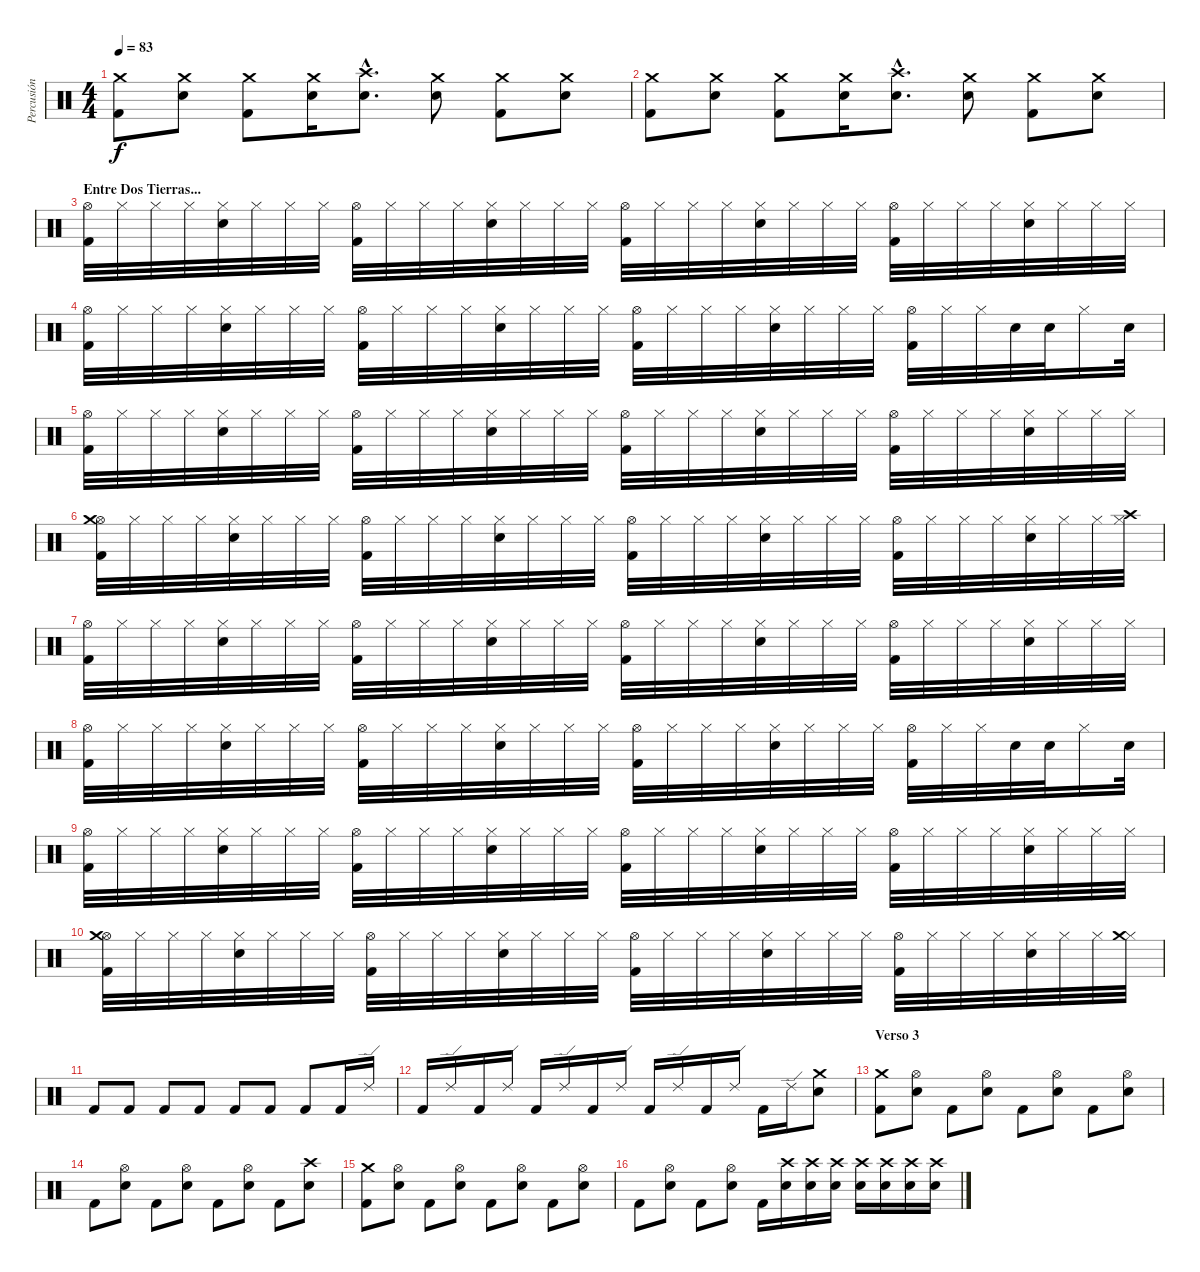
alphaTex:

\track ("Percusión" "Percusión") {instrument percussion}
\staff {score}
\articulation defaults
\ts (4 4)
\tempo 83
\clef neutral
\ks c
("Kick (hit) 2" "Crash medium (hit)").8{dy f} ("Snare (hit) 2" "Crash medium (hit)").8 ("Kick (hit) 2" "Crash medium (hit)").8 ("Snare (hit) 2" "Crash medium (hit)").16 ("Snare (hit) 2"{hac} "Crash high (hit)"{hac}).8{d} ("Snare (hit) 2" "Crash medium (hit)").8 ("Kick (hit) 2" "Crash medium (hit)").8 ("Snare (hit) 2" "Crash medium (hit)").8 |
("Kick (hit) 2" "Crash medium (hit)").8 ("Snare (hit) 2" "Crash medium (hit)").8 ("Kick (hit) 2" "Crash medium (hit)").8 ("Snare (hit) 2" "Crash medium (hit)").16 ("Snare (hit) 2"{hac} "Crash high (hit)"{hac}).8{d} ("Snare (hit) 2" "Crash medium (hit)").8 ("Kick (hit) 2" "Crash medium (hit)").8 ("Snare (hit) 2" "Crash medium (hit)").8 |
\section ("" "Entre Dos Tierras...")
("Hi-Hat (open)" "Kick (hit) 2").32 "Hi-Hat (closed)".32 "Hi-Hat (closed)".32 "Hi-Hat (closed)".32 ("Hi-Hat (closed)" "Snare (hit) 2").32 "Hi-Hat (closed)".32 "Hi-Hat (closed)".32 "Hi-Hat (closed)".32 ("Hi-Hat (open)" "Kick (hit) 2").32 "Hi-Hat (closed)".32 "Hi-Hat (closed)".32 "Hi-Hat (closed)".32 ("Hi-Hat (closed)" "Snare (hit) 2").32 "Hi-Hat (closed)".32 "Hi-Hat (closed)".32 "Hi-Hat (closed)".32 ("Hi-Hat (open)" "Kick (hit) 2").32 "Hi-Hat (closed)".32 "Hi-Hat (closed)".32 "Hi-Hat (closed)".32 ("Hi-Hat (closed)" "Snare (hit) 2").32 "Hi-Hat (closed)".32 "Hi-Hat (closed)".32 "Hi-Hat (closed)".32 ("Hi-Hat (open)" "Kick (hit) 2").32 "Hi-Hat (closed)".32 "Hi-Hat (closed)".32 "Hi-Hat (closed)".32 ("Hi-Hat (closed)" "Snare (hit) 2").32 "Hi-Hat (closed)".32 "Hi-Hat (closed)".32 "Hi-Hat (closed)".32 |
("Hi-Hat (open)" "Kick (hit) 2").32 "Hi-Hat (closed)".32 "Hi-Hat (closed)".32 "Hi-Hat (closed)".32 ("Hi-Hat (closed)" "Snare (hit) 2").32 "Hi-Hat (closed)".32 "Hi-Hat (closed)".32 "Hi-Hat (closed)".32 ("Hi-Hat (open)" "Kick (hit) 2").32 "Hi-Hat (closed)".32 "Hi-Hat (closed)".32 "Hi-Hat (closed)".32 ("Hi-Hat (closed)" "Snare (hit) 2").32 "Hi-Hat (closed)".32 "Hi-Hat (closed)".32 "Hi-Hat (closed)".32 ("Hi-Hat (open)" "Kick (hit) 2").32 "Hi-Hat (closed)".32 "Hi-Hat (closed)".32 "Hi-Hat (closed)".32 ("Hi-Hat (closed)" "Snare (hit) 2").32 "Hi-Hat (closed)".32 "Hi-Hat (closed)".32 "Hi-Hat (closed)".32 ("Hi-Hat (open)" "Kick (hit) 2").32 "Hi-Hat (closed)".32 "Hi-Hat (closed)".32 "Snare (hit) 2".32 "Snare (hit) 2".32 "Hi-Hat (closed)".16 "Snare (hit) 2".32 |
("Hi-Hat (open)" "Kick (hit) 2").32 "Hi-Hat (closed)".32 "Hi-Hat (closed)".32 "Hi-Hat (closed)".32 ("Hi-Hat (closed)" "Snare (hit) 2").32 "Hi-Hat (closed)".32 "Hi-Hat (closed)".32 "Hi-Hat (closed)".32 ("Hi-Hat (open)" "Kick (hit) 2").32 "Hi-Hat (closed)".32 "Hi-Hat (closed)".32 "Hi-Hat (closed)".32 ("Hi-Hat (closed)" "Snare (hit) 2").32 "Hi-Hat (closed)".32 "Hi-Hat (closed)".32 "Hi-Hat (closed)".32 ("Hi-Hat (open)" "Kick (hit) 2").32 "Hi-Hat (closed)".32 "Hi-Hat (closed)".32 "Hi-Hat (closed)".32 ("Hi-Hat (closed)" "Snare (hit) 2").32 "Hi-Hat (closed)".32 "Hi-Hat (closed)".32 "Hi-Hat (closed)".32 ("Hi-Hat (open)" "Kick (hit) 2").32 "Hi-Hat (closed)".32 "Hi-Hat (closed)".32 "Hi-Hat (closed)".32 ("Hi-Hat (closed)" "Snare (hit) 2").32 "Hi-Hat (closed)".32 "Hi-Hat (closed)".32 "Hi-Hat (closed)".32 |
("Hi-Hat (open)" "Kick (hit) 2" "Crash medium (hit)").32 "Hi-Hat (closed)".32 "Hi-Hat (closed)".32 "Hi-Hat (closed)".32 ("Hi-Hat (closed)" "Snare (hit) 2").32 "Hi-Hat (closed)".32 "Hi-Hat (closed)".32 "Hi-Hat (closed)".32 ("Hi-Hat (open)" "Kick (hit) 2").32 "Hi-Hat (closed)".32 "Hi-Hat (closed)".32 "Hi-Hat (closed)".32 ("Hi-Hat (closed)" "Snare (hit) 2").32 "Hi-Hat (closed)".32 "Hi-Hat (closed)".32 "Hi-Hat (closed)".32 ("Hi-Hat (open)" "Kick (hit) 2").32 "Hi-Hat (closed)".32 "Hi-Hat (closed)".32 "Hi-Hat (closed)".32 ("Hi-Hat (closed)" "Snare (hit) 2").32 "Hi-Hat (closed)".32 "Hi-Hat (closed)".32 "Hi-Hat (closed)".32 ("Hi-Hat (open)" "Kick (hit) 2").32 "Hi-Hat (closed)".32 "Hi-Hat (closed)".32 "Hi-Hat (closed)".32 ("Hi-Hat (closed)" "Snare (hit) 2").32 "Hi-Hat (closed)".32 "Hi-Hat (closed)".32 ("Hi-Hat (closed)" "Crash high (hit)").32 |
("Hi-Hat (open)" "Kick (hit) 2").32 "Hi-Hat (closed)".32 "Hi-Hat (closed)".32 "Hi-Hat (closed)".32 ("Hi-Hat (closed)" "Snare (hit) 2").32 "Hi-Hat (closed)".32 "Hi-Hat (closed)".32 "Hi-Hat (closed)".32 ("Hi-Hat (open)" "Kick (hit) 2").32 "Hi-Hat (closed)".32 "Hi-Hat (closed)".32 "Hi-Hat (closed)".32 ("Hi-Hat (closed)" "Snare (hit) 2").32 "Hi-Hat (closed)".32 "Hi-Hat (closed)".32 "Hi-Hat (closed)".32 ("Hi-Hat (open)" "Kick (hit) 2").32 "Hi-Hat (closed)".32 "Hi-Hat (closed)".32 "Hi-Hat (closed)".32 ("Hi-Hat (closed)" "Snare (hit) 2").32 "Hi-Hat (closed)".32 "Hi-Hat (closed)".32 "Hi-Hat (closed)".32 ("Hi-Hat (open)" "Kick (hit) 2").32 "Hi-Hat (closed)".32 "Hi-Hat (closed)".32 "Hi-Hat (closed)".32 ("Hi-Hat (closed)" "Snare (hit) 2").32 "Hi-Hat (closed)".32 "Hi-Hat (closed)".32 "Hi-Hat (closed)".32 |
("Hi-Hat (open)" "Kick (hit) 2").32 "Hi-Hat (closed)".32 "Hi-Hat (closed)".32 "Hi-Hat (closed)".32 ("Hi-Hat (closed)" "Snare (hit) 2").32 "Hi-Hat (closed)".32 "Hi-Hat (closed)".32 "Hi-Hat (closed)".32 ("Hi-Hat (open)" "Kick (hit) 2").32 "Hi-Hat (closed)".32 "Hi-Hat (closed)".32 "Hi-Hat (closed)".32 ("Hi-Hat (closed)" "Snare (hit) 2").32 "Hi-Hat (closed)".32 "Hi-Hat (closed)".32 "Hi-Hat (closed)".32 ("Hi-Hat (open)" "Kick (hit) 2").32 "Hi-Hat (closed)".32 "Hi-Hat (closed)".32 "Hi-Hat (closed)".32 ("Hi-Hat (closed)" "Snare (hit) 2").32 "Hi-Hat (closed)".32 "Hi-Hat (closed)".32 "Hi-Hat (closed)".32 ("Hi-Hat (open)" "Kick (hit) 2").32 "Hi-Hat (closed)".32 "Hi-Hat (closed)".32 "Snare (hit) 2".32 "Snare (hit) 2".32 "Hi-Hat (closed)".16 "Snare (hit) 2".32 |
("Hi-Hat (open)" "Kick (hit) 2").32 "Hi-Hat (closed)".32 "Hi-Hat (closed)".32 "Hi-Hat (closed)".32 ("Hi-Hat (closed)" "Snare (hit) 2").32 "Hi-Hat (closed)".32 "Hi-Hat (closed)".32 "Hi-Hat (closed)".32 ("Hi-Hat (open)" "Kick (hit) 2").32 "Hi-Hat (closed)".32 "Hi-Hat (closed)".32 "Hi-Hat (closed)".32 ("Hi-Hat (closed)" "Snare (hit) 2").32 "Hi-Hat (closed)".32 "Hi-Hat (closed)".32 "Hi-Hat (closed)".32 ("Hi-Hat (open)" "Kick (hit) 2").32 "Hi-Hat (closed)".32 "Hi-Hat (closed)".32 "Hi-Hat (closed)".32 ("Hi-Hat (closed)" "Snare (hit) 2").32 "Hi-Hat (closed)".32 "Hi-Hat (closed)".32 "Hi-Hat (closed)".32 ("Hi-Hat (open)" "Kick (hit) 2").32 "Hi-Hat (closed)".32 "Hi-Hat (closed)".32 "Hi-Hat (closed)".32 ("Hi-Hat (closed)" "Snare (hit) 2").32 "Hi-Hat (closed)".32 "Hi-Hat (closed)".32 "Hi-Hat (closed)".32 |
("Hi-Hat (open)" "Kick (hit) 2" "Crash medium (hit)").32 "Hi-Hat (closed)".32 "Hi-Hat (closed)".32 "Hi-Hat (closed)".32 ("Hi-Hat (closed)" "Snare (hit) 2").32 "Hi-Hat (closed)".32 "Hi-Hat (closed)".32 "Hi-Hat (closed)".32 ("Hi-Hat (open)" "Kick (hit) 2").32 "Hi-Hat (closed)".32 "Hi-Hat (closed)".32 "Hi-Hat (closed)".32 ("Hi-Hat (closed)" "Snare (hit) 2").32 "Hi-Hat (closed)".32 "Hi-Hat (closed)".32 "Hi-Hat (closed)".32 ("Hi-Hat (open)" "Kick (hit) 2").32 "Hi-Hat (closed)".32 "Hi-Hat (closed)".32 "Hi-Hat (closed)".32 ("Hi-Hat (closed)" "Snare (hit) 2").32 "Hi-Hat (closed)".32 "Hi-Hat (closed)".32 "Hi-Hat (closed)".32 ("Hi-Hat (open)" "Kick (hit) 2").32 "Hi-Hat (closed)".32 "Hi-Hat (closed)".32 "Hi-Hat (closed)".32 ("Hi-Hat (closed)" "Snare (hit) 2").32 "Hi-Hat (closed)".32 "Hi-Hat (closed)".32 ("Hi-Hat (closed)" "Crash medium (hit)").32 |
"Kick (hit) 2".8 "Kick (hit) 2".8 "Kick (hit) 2".8 "Kick (hit) 2".8 "Kick (hit) 2".8 "Kick (hit) 2".8 "Kick (hit) 2".8 "Kick (hit) 2".16 "Ride (edge) 2".16 |
"Kick (hit) 2".16 "Ride (edge) 2".16 "Kick (hit) 2".16 "Ride (edge) 2".16 "Kick (hit) 2".16 "Ride (edge) 2".16 "Kick (hit) 2".16 "Ride (edge) 2".16 "Kick (hit) 2".16 "Ride (edge) 2".16 "Kick (hit) 2".16 "Ride (edge) 2".16 "Kick (hit) 2".16 "Ride (edge) 2".16 ("Snare (hit) 2" "Crash medium (hit)").8 |
\section ("" "Verso 3")
("Kick (hit) 2" "Crash medium (hit)").8 ("Snare (hit) 2" "Hi-Hat (open)").8 "Kick (hit) 2".8 ("Snare (hit) 2" "Hi-Hat (open)").8 "Kick (hit) 2".8 ("Snare (hit) 2" "Hi-Hat (open)").8 "Kick (hit) 2".8 ("Snare (hit) 2" "Hi-Hat (open)").8 |
"Kick (hit) 2".8 ("Snare (hit) 2" "Hi-Hat (open)").8 "Kick (hit) 2".8 ("Snare (hit) 2" "Hi-Hat (open)").8 "Kick (hit) 2".8 ("Snare (hit) 2" "Hi-Hat (open)").8 "Kick (hit) 2".8 ("Snare (hit) 2" "Crash high (hit)").8 |
("Kick (hit) 2" "Crash medium (hit)").8 ("Snare (hit) 2" "Hi-Hat (open)").8 "Kick (hit) 2".8 ("Snare (hit) 2" "Hi-Hat (open)").8 "Kick (hit) 2".8 ("Snare (hit) 2" "Hi-Hat (open)").8 "Kick (hit) 2".8 ("Snare (hit) 2" "Hi-Hat (open)").8 |
"Kick (hit) 2".8 ("Snare (hit) 2" "Hi-Hat (open)").8 "Kick (hit) 2".8 ("Snare (hit) 2" "Hi-Hat (open)").8 "Kick (hit) 2".16 ("Snare (hit) 2" "Crash high (hit)").16 ("Snare (hit) 2" "Crash high (hit)").16 ("Snare (hit) 2" "Crash high (hit)").16 ("Snare (hit) 2" "Crash high (hit)").16 ("Snare (hit) 2" "Crash high (hit)").16 ("Snare (hit) 2" "Crash high (hit)").16 ("Snare (hit) 2" "Crash high (hit)").16
